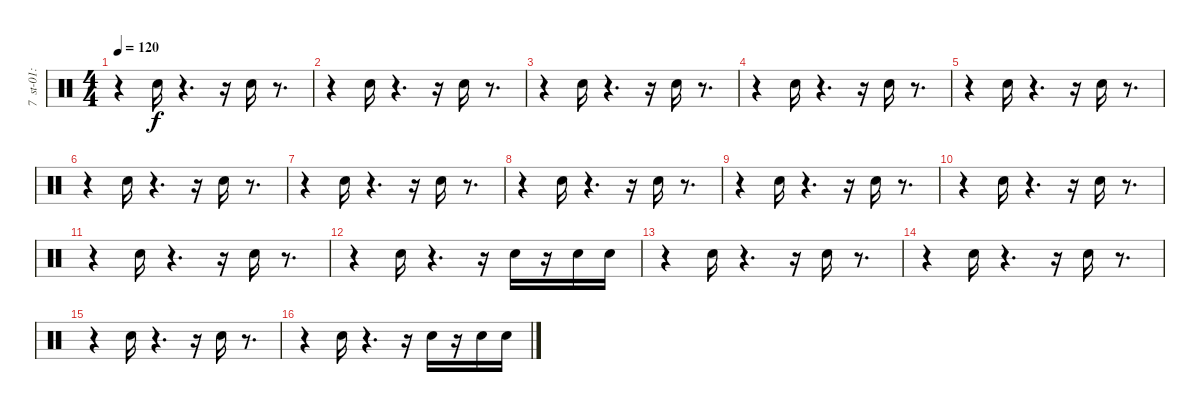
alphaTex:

\track (" 7  st-01:claps1" " 7  st-01:") {instrument percussion}
\staff {score}
\articulation defaults
\ts (4 4)
\tempo 120
\clef neutral
\ks c
r.4{dy f} "Hand Clap (hit)".16 r.4{d} r.16 "Hand Clap (hit)".16 r.8{d} |
r.4 "Hand Clap (hit)".16 r.4{d} r.16 "Hand Clap (hit)".16 r.8{d} |
r.4 "Hand Clap (hit)".16 r.4{d} r.16 "Hand Clap (hit)".16 r.8{d} |
r.4 "Hand Clap (hit)".16 r.4{d} r.16 "Hand Clap (hit)".16 r.8{d} |
r.4 "Hand Clap (hit)".16 r.4{d} r.16 "Hand Clap (hit)".16 r.8{d} |
r.4 "Hand Clap (hit)".16 r.4{d} r.16 "Hand Clap (hit)".16 r.8{d} |
r.4 "Hand Clap (hit)".16 r.4{d} r.16 "Hand Clap (hit)".16 r.8{d} |
r.4 "Hand Clap (hit)".16 r.4{d} r.16 "Hand Clap (hit)".16 r.8{d} |
r.4 "Hand Clap (hit)".16 r.4{d} r.16 "Hand Clap (hit)".16 r.8{d} |
r.4 "Hand Clap (hit)".16 r.4{d} r.16 "Hand Clap (hit)".16 r.8{d} |
r.4 "Hand Clap (hit)".16 r.4{d} r.16 "Hand Clap (hit)".16 r.8{d} |
r.4 "Hand Clap (hit)".16 r.4{d} r.16 "Hand Clap (hit)".16 r.16 "Hand Clap (hit)".16 "Hand Clap (hit)".16 |
r.4 "Hand Clap (hit)".16 r.4{d} r.16 "Hand Clap (hit)".16 r.8{d} |
r.4 "Hand Clap (hit)".16 r.4{d} r.16 "Hand Clap (hit)".16 r.8{d} |
r.4 "Hand Clap (hit)".16 r.4{d} r.16 "Hand Clap (hit)".16 r.8{d} |
r.4 "Hand Clap (hit)".16 r.4{d} r.16 "Hand Clap (hit)".16 r.16 "Hand Clap (hit)".16 "Hand Clap (hit)".16
